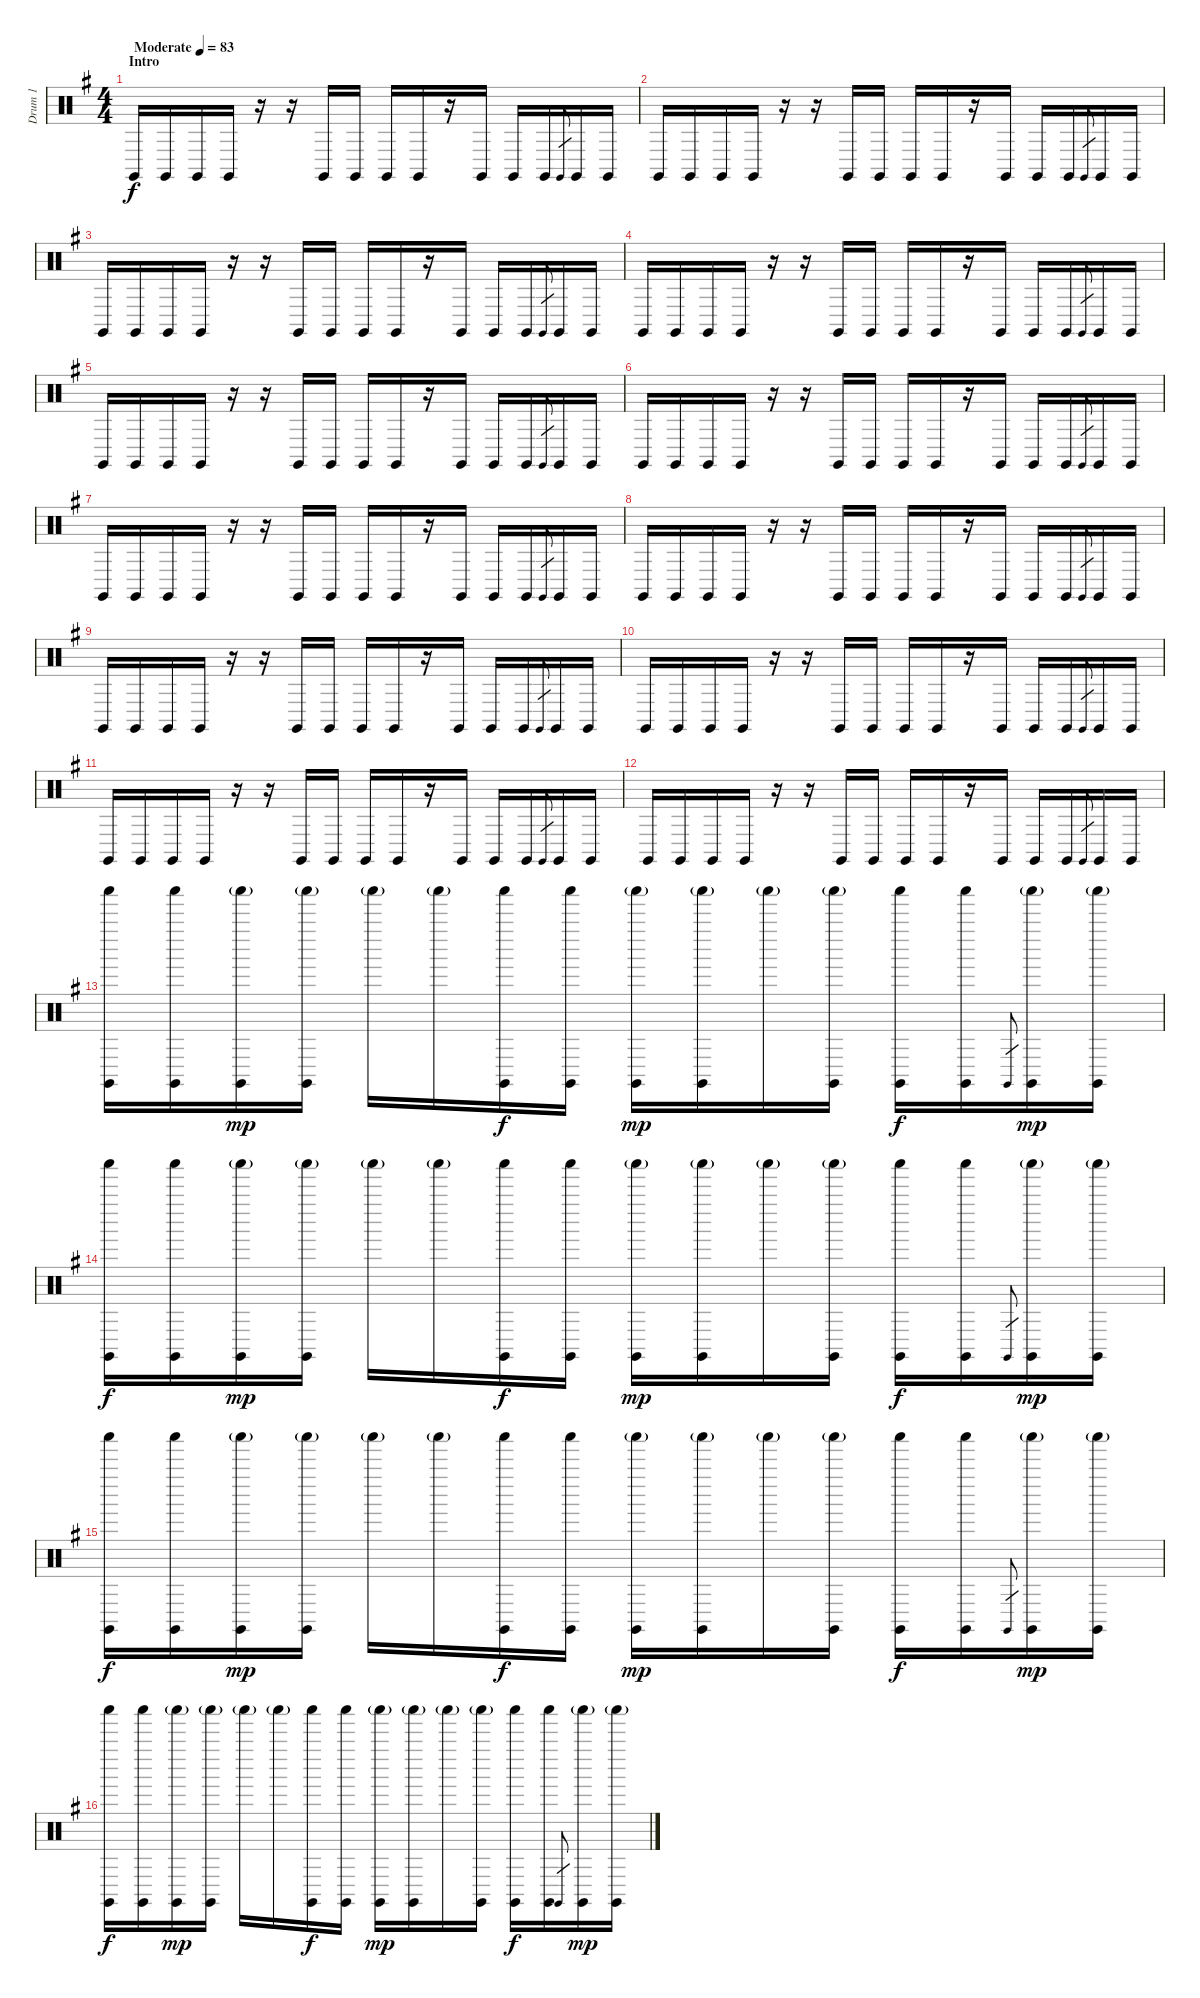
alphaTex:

\track ("Drum 1" "Drum 1") {instrument percussion}
\staff {score}
\articulation defaults
\ts (4 4)
\section ("" "Intro")
\tempo (83 "Moderate")
\clef neutral
\ks eminor "Claves (hit)".16{dy f} "Claves (hit)".16 "Claves (hit)".16 "Claves (hit)".16
r.16 r.16 "Claves (hit)".16 "Claves (hit)".16 "Claves (hit)".16 "Claves (hit)".16 r.16 "Claves (hit)".16 "Claves (hit)".16 "Claves (hit)".16 "Claves (hit)".8{gr} "Claves (hit)".16 "Claves (hit)".16 |
"Claves (hit)".16 "Claves (hit)".16 "Claves (hit)".16 "Claves (hit)".16 r.16 r.16 "Claves (hit)".16 "Claves (hit)".16 "Claves (hit)".16 "Claves (hit)".16 r.16 "Claves (hit)".16 "Claves (hit)".16 "Claves (hit)".16 "Claves (hit)".8{gr} "Claves (hit)".16 "Claves (hit)".16 |
"Claves (hit)".16 "Claves (hit)".16 "Claves (hit)".16 "Claves (hit)".16 r.16 r.16 "Claves (hit)".16 "Claves (hit)".16 "Claves (hit)".16 "Claves (hit)".16 r.16 "Claves (hit)".16 "Claves (hit)".16 "Claves (hit)".16 "Claves (hit)".8{gr} "Claves (hit)".16 "Claves (hit)".16 |
"Claves (hit)".16 "Claves (hit)".16 "Claves (hit)".16 "Claves (hit)".16 r.16 r.16 "Claves (hit)".16 "Claves (hit)".16 "Claves (hit)".16 "Claves (hit)".16 r.16 "Claves (hit)".16 "Claves (hit)".16 "Claves (hit)".16 "Claves (hit)".8{gr} "Claves (hit)".16 "Claves (hit)".16 |
"Claves (hit)".16 "Claves (hit)".16 "Claves (hit)".16 "Claves (hit)".16 r.16 r.16 "Claves (hit)".16 "Claves (hit)".16 "Claves (hit)".16 "Claves (hit)".16 r.16 "Claves (hit)".16 "Claves (hit)".16 "Claves (hit)".16 "Claves (hit)".8{gr} "Claves (hit)".16 "Claves (hit)".16 |
"Claves (hit)".16 "Claves (hit)".16 "Claves (hit)".16 "Claves (hit)".16 r.16 r.16 "Claves (hit)".16 "Claves (hit)".16 "Claves (hit)".16 "Claves (hit)".16 r.16 "Claves (hit)".16 "Claves (hit)".16 "Claves (hit)".16 "Claves (hit)".8{gr} "Claves (hit)".16 "Claves (hit)".16 |
"Claves (hit)".16 "Claves (hit)".16 "Claves (hit)".16 "Claves (hit)".16 r.16 r.16 "Claves (hit)".16 "Claves (hit)".16 "Claves (hit)".16 "Claves (hit)".16 r.16 "Claves (hit)".16 "Claves (hit)".16 "Claves (hit)".16 "Claves (hit)".8{gr} "Claves (hit)".16 "Claves (hit)".16 |
"Claves (hit)".16 "Claves (hit)".16 "Claves (hit)".16 "Claves (hit)".16 r.16 r.16 "Claves (hit)".16 "Claves (hit)".16 "Claves (hit)".16 "Claves (hit)".16 r.16 "Claves (hit)".16 "Claves (hit)".16 "Claves (hit)".16 "Claves (hit)".8{gr} "Claves (hit)".16 "Claves (hit)".16 |
"Claves (hit)".16 "Claves (hit)".16 "Claves (hit)".16 "Claves (hit)".16 r.16 r.16 "Claves (hit)".16 "Claves (hit)".16 "Claves (hit)".16 "Claves (hit)".16 r.16 "Claves (hit)".16 "Claves (hit)".16 "Claves (hit)".16 "Claves (hit)".8{gr} "Claves (hit)".16 "Claves (hit)".16 |
"Claves (hit)".16 "Claves (hit)".16 "Claves (hit)".16 "Claves (hit)".16 r.16 r.16 "Claves (hit)".16 "Claves (hit)".16 "Claves (hit)".16 "Claves (hit)".16 r.16 "Claves (hit)".16 "Claves (hit)".16 "Claves (hit)".16 "Claves (hit)".8{gr} "Claves (hit)".16 "Claves (hit)".16 |
"Claves (hit)".16 "Claves (hit)".16 "Claves (hit)".16 "Claves (hit)".16 r.16 r.16 "Claves (hit)".16 "Claves (hit)".16 "Claves (hit)".16 "Claves (hit)".16 r.16 "Claves (hit)".16 "Claves (hit)".16 "Claves (hit)".16 "Claves (hit)".8{gr} "Claves (hit)".16 "Claves (hit)".16 |
"Claves (hit)".16 "Claves (hit)".16 "Claves (hit)".16 "Claves (hit)".16 r.16 r.16 "Claves (hit)".16 "Claves (hit)".16 "Claves (hit)".16 "Claves (hit)".16 r.16 "Claves (hit)".16 "Claves (hit)".16 "Claves (hit)".16 "Claves (hit)".8{gr} "Claves (hit)".16 "Claves (hit)".16 |
("Shaker (hit)" "Claves (hit)").16 ("Shaker (hit)" "Claves (hit)").16 ("Shaker (hit)"{g} "Claves (hit)").16{dy mp} ("Shaker (hit)"{g} "Claves (hit)").16 "Shaker (hit)"{g}.16 "Shaker (hit)"{g}.16 ("Shaker (hit)" "Claves (hit)").16{dy f} ("Shaker (hit)" "Claves (hit)").16 ("Shaker (hit)"{g} "Claves (hit)").16{dy mp} ("Shaker (hit)"{g} "Claves (hit)").16 "Shaker (hit)"{g}.16 ("Shaker (hit)"{g} "Claves (hit)").16 ("Shaker (hit)" "Claves (hit)").16{dy f} ("Shaker (hit)" "Claves (hit)").16 "Claves (hit)".8{gr} ("Shaker (hit)"{g} "Claves (hit)").16{dy mp} ("Shaker (hit)"{g} "Claves (hit)").16 |
("Shaker (hit)" "Claves (hit)").16{dy f} ("Shaker (hit)" "Claves (hit)").16 ("Shaker (hit)"{g} "Claves (hit)").16{dy mp} ("Shaker (hit)"{g} "Claves (hit)").16 "Shaker (hit)"{g}.16 "Shaker (hit)"{g}.16 ("Shaker (hit)" "Claves (hit)").16{dy f} ("Shaker (hit)" "Claves (hit)").16 ("Shaker (hit)"{g} "Claves (hit)").16{dy mp} ("Shaker (hit)"{g} "Claves (hit)").16 "Shaker (hit)"{g}.16 ("Shaker (hit)"{g} "Claves (hit)").16 ("Shaker (hit)" "Claves (hit)").16{dy f} ("Shaker (hit)" "Claves (hit)").16 "Claves (hit)".8{gr} ("Shaker (hit)"{g} "Claves (hit)").16{dy mp} ("Shaker (hit)"{g} "Claves (hit)").16 |
("Shaker (hit)" "Claves (hit)").16{dy f} ("Shaker (hit)" "Claves (hit)").16 ("Shaker (hit)"{g} "Claves (hit)").16{dy mp} ("Shaker (hit)"{g} "Claves (hit)").16 "Shaker (hit)"{g}.16 "Shaker (hit)"{g}.16 ("Shaker (hit)" "Claves (hit)").16{dy f} ("Shaker (hit)" "Claves (hit)").16 ("Shaker (hit)"{g} "Claves (hit)").16{dy mp} ("Shaker (hit)"{g} "Claves (hit)").16 "Shaker (hit)"{g}.16 ("Shaker (hit)"{g} "Claves (hit)").16 ("Shaker (hit)" "Claves (hit)").16{dy f} ("Shaker (hit)" "Claves (hit)").16 "Claves (hit)".8{gr} ("Shaker (hit)"{g} "Claves (hit)").16{dy mp} ("Shaker (hit)"{g} "Claves (hit)").16 |
("Shaker (hit)" "Claves (hit)").16{dy f} ("Shaker (hit)" "Claves (hit)").16 ("Shaker (hit)"{g} "Claves (hit)").16{dy mp} ("Shaker (hit)"{g} "Claves (hit)").16 "Shaker (hit)"{g}.16 "Shaker (hit)"{g}.16 ("Shaker (hit)" "Claves (hit)").16{dy f} ("Shaker (hit)" "Claves (hit)").16 ("Shaker (hit)"{g} "Claves (hit)").16{dy mp} ("Shaker (hit)"{g} "Claves (hit)").16 "Shaker (hit)"{g}.16 ("Shaker (hit)"{g} "Claves (hit)").16 ("Shaker (hit)" "Claves (hit)").16{dy f} ("Shaker (hit)" "Claves (hit)").16 "Claves (hit)".8{gr} ("Shaker (hit)"{g} "Claves (hit)").16{dy mp} ("Shaker (hit)"{g} "Claves (hit)").16
